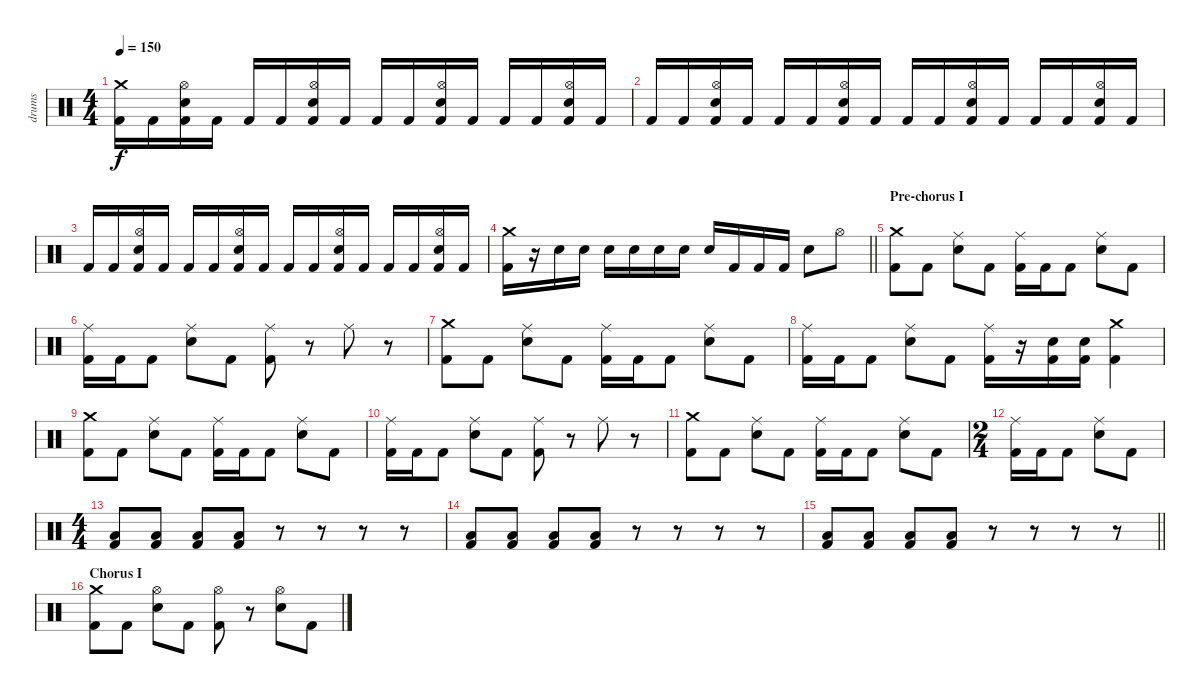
\track ("drums" "drums") {instrument percussion}
\staff {score}
\articulation defaults
\ts (4 4)
\tempo 150
\clef neutral
\ks c
("Crash medium (hit)" "Kick (hit) 2").16{dy f} "Kick (hit) 2".16 ("Hi-Hat (open)" "Electric Snare (hit)" "Kick (hit) 2").16 "Kick (hit) 2".16 "Kick (hit) 2".16 "Kick (hit) 2".16 ("Hi-Hat (open)" "Electric Snare (hit)" "Kick (hit) 2").16 "Kick (hit) 2".16 "Kick (hit) 2".16 "Kick (hit) 2".16 ("Hi-Hat (open)" "Electric Snare (hit)" "Kick (hit) 2").16 "Kick (hit) 2".16 "Kick (hit) 2".16 "Kick (hit) 2".16 ("Hi-Hat (open)" "Electric Snare (hit)" "Kick (hit) 2").16 "Kick (hit) 2".16 |
"Kick (hit) 2".16 "Kick (hit) 2".16 ("Hi-Hat (open)" "Electric Snare (hit)" "Kick (hit) 2").16 "Kick (hit) 2".16 "Kick (hit) 2".16 "Kick (hit) 2".16 ("Hi-Hat (open)" "Electric Snare (hit)" "Kick (hit) 2").16 "Kick (hit) 2".16 "Kick (hit) 2".16 "Kick (hit) 2".16 ("Hi-Hat (open)" "Electric Snare (hit)" "Kick (hit) 2").16 "Kick (hit) 2".16 "Kick (hit) 2".16 "Kick (hit) 2".16 ("Hi-Hat (open)" "Electric Snare (hit)" "Kick (hit) 2").16 "Kick (hit) 2".16 |
"Kick (hit) 2".16 "Kick (hit) 2".16 ("Hi-Hat (open)" "Electric Snare (hit)" "Kick (hit) 2").16 "Kick (hit) 2".16 "Kick (hit) 2".16 "Kick (hit) 2".16 ("Hi-Hat (open)" "Electric Snare (hit)" "Kick (hit) 2").16 "Kick (hit) 2".16 "Kick (hit) 2".16 "Kick (hit) 2".16 ("Hi-Hat (open)" "Electric Snare (hit)" "Kick (hit) 2").16 "Kick (hit) 2".16 "Kick (hit) 2".16 "Kick (hit) 2".16 ("Hi-Hat (open)" "Electric Snare (hit)" "Kick (hit) 2").16 "Kick (hit) 2".16 |
\barLineRight lightlight
("Crash medium (hit)" "Kick (hit) 2").16 r.16 "Electric Snare (hit)".16 "Electric Snare (hit)".16 "Electric Snare (hit)".16 "Snare (hit) 2".16 "Snare (hit) 2".16 "Snare (hit) 2".16 "Snare (hit) 2".16 "Kick (hit) 2".16 "Kick (hit) 2".16 "Kick (hit) 2".16 "Electric Snare (hit)".8 "Hi-Hat (open)".8 |
\section ("" "Pre-chorus I")
("Crash medium (hit)" "Kick (hit) 2").8 "Kick (hit) 2".8 ("Ride (middle)" "Electric Snare (hit)").8 "Kick (hit) 2".8 ("Ride (middle)" "Kick (hit) 2").16 "Kick (hit) 2".16 "Kick (hit) 2".8 ("Ride (middle)" "Electric Snare (hit)").8 "Kick (hit) 2".8 |
("Ride (middle)" "Kick (hit) 2").16 "Kick (hit) 2".16 "Kick (hit) 2".8 ("Ride (middle)" "Electric Snare (hit)").8 "Kick (hit) 2".8 ("Ride (middle)" "Kick (hit) 2").8 r.8 "Ride (middle)".8 r.8 |
("Crash medium (hit)" "Kick (hit) 2").8 "Kick (hit) 2".8 ("Ride (middle)" "Electric Snare (hit)").8 "Kick (hit) 2".8 ("Ride (middle)" "Kick (hit) 2").16 "Kick (hit) 2".16 "Kick (hit) 2".8 ("Ride (middle)" "Electric Snare (hit)").8 "Kick (hit) 2".8 |
("Ride (middle)" "Kick (hit) 2").16 "Kick (hit) 2".16 "Kick (hit) 2".8 ("Ride (middle)" "Electric Snare (hit)").8 "Kick (hit) 2".8 ("Ride (middle)" "Kick (hit) 2").16 r.16 ("Electric Snare (hit)" "Kick (hit) 2").16 ("Electric Snare (hit)" "Kick (hit) 2").16 ("Crash medium (hit)" "Kick (hit) 2").4 |
("Crash medium (hit)" "Kick (hit) 2").8 "Kick (hit) 2".8 ("Ride (middle)" "Electric Snare (hit)").8 "Kick (hit) 2".8 ("Ride (middle)" "Kick (hit) 2").16 "Kick (hit) 2".16 "Kick (hit) 2".8 ("Ride (middle)" "Electric Snare (hit)").8 "Kick (hit) 2".8 |
("Ride (middle)" "Kick (hit) 2").16 "Kick (hit) 2".16 "Kick (hit) 2".8 ("Ride (middle)" "Electric Snare (hit)").8 "Kick (hit) 2".8 ("Ride (middle)" "Kick (hit) 2").8 r.8 "Ride (middle)".8 r.8 |
("Crash medium (hit)" "Kick (hit) 2").8 "Kick (hit) 2".8 ("Ride (middle)" "Electric Snare (hit)").8 "Kick (hit) 2".8 ("Ride (middle)" "Kick (hit) 2").16 "Kick (hit) 2".16 "Kick (hit) 2".8 ("Ride (middle)" "Electric Snare (hit)").8 "Kick (hit) 2".8 |
\ts (2 4)
("Ride (middle)" "Kick (hit) 2").16 "Kick (hit) 2".16 "Kick (hit) 2".8 ("Ride (middle)" "Electric Snare (hit)").8 "Kick (hit) 2".8 |
\ts (4 4)
("Low Tom (hit)" "Kick (hit) 2").8 ("Low Tom (hit)" "Kick (hit) 2").8 ("Low Tom (hit)" "Kick (hit) 2").8 ("Low Tom (hit)" "Kick (hit) 2").8 r.8 r.8 r.8 r.8 |
("Low Tom (hit)" "Kick (hit) 2").8 ("Low Tom (hit)" "Kick (hit) 2").8 ("Low Tom (hit)" "Kick (hit) 2").8 ("Low Tom (hit)" "Kick (hit) 2").8 r.8 r.8 r.8 r.8 |
\barLineRight lightlight
("Low Tom (hit)" "Kick (hit) 2").8 ("Low Tom (hit)" "Kick (hit) 2").8 ("Low Tom (hit)" "Kick (hit) 2").8 ("Low Tom (hit)" "Kick (hit) 2").8 r.8 r.8 r.8 r.8 |
\section ("" "Chorus I")
("Crash medium (hit)" "Kick (hit) 2").8 "Kick (hit) 2".8 ("Hi-Hat (open)" "Electric Snare (hit)").8 "Kick (hit) 2".8 ("Hi-Hat (open)" "Kick (hit) 2").8 r.8 ("Hi-Hat (open)" "Electric Snare (hit)").8 "Kick (hit) 2".8
